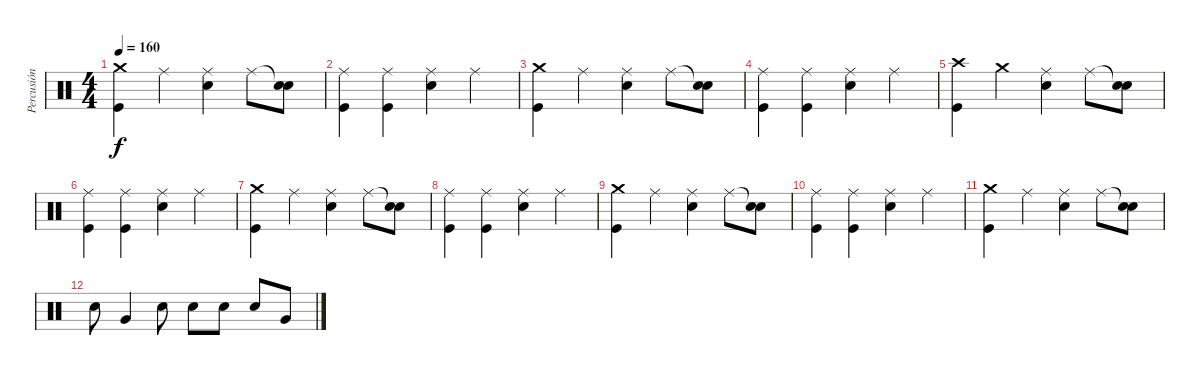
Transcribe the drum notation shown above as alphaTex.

\track ("Percusión" "Percusión") {instrument percussion}
\staff {score}
\articulation defaults
\ts (4 4)
\tempo 160
\clef neutral
\ks c
("Crash medium (hit)" "Kick (hit)").4{dy f} "Ride (middle)".4 ("Ride (middle)" "Snare (hit) 2").4 "Ride (middle)".8 ("Snare (hit)"{t} "Snare (hit) 2").8 |
("Ride (middle)" "Kick (hit)").4 ("Ride (middle)" "Kick (hit)").4 ("Ride (middle)" "Snare (hit) 2").4 "Ride (middle)".4 |
("Crash medium (hit)" "Kick (hit)").4 "Ride (middle)".4 ("Ride (middle)" "Snare (hit) 2").4 "Ride (middle)".8 ("Snare (hit)"{t} "Snare (hit) 2").8 |
("Ride (middle)" "Kick (hit)").4 ("Ride (middle)" "Kick (hit)").4 ("Ride (middle)" "Snare (hit) 2").4 "Ride (middle)".4 |
("Crash high (hit)" "Kick (hit)").4 "Crash medium (hit)".4 ("Ride (middle)" "Snare (hit) 2").4 "Ride (middle)".8 ("Snare (hit)"{t} "Snare (hit) 2").8 |
("Ride (middle)" "Kick (hit)").4 ("Ride (middle)" "Kick (hit)").4 ("Ride (middle)" "Snare (hit) 2").4 "Ride (middle)".4 |
("Crash medium (hit)" "Kick (hit)").4 "Ride (middle)".4 ("Ride (middle)" "Snare (hit) 2").4 "Ride (middle)".8 ("Snare (hit)"{t} "Snare (hit) 2").8 |
("Ride (middle)" "Kick (hit)").4 ("Ride (middle)" "Kick (hit)").4 ("Ride (middle)" "Snare (hit) 2").4 "Ride (middle)".4 |
("Crash medium (hit)" "Kick (hit)").4 "Ride (middle)".4 ("Ride (middle)" "Snare (hit) 2").4 "Ride (middle)".8 ("Snare (hit)"{t} "Snare (hit) 2").8 |
("Ride (middle)" "Kick (hit)").4 ("Ride (middle)" "Kick (hit)").4 ("Ride (middle)" "Snare (hit) 2").4 "Ride (middle)".4 |
("Crash medium (hit)" "Kick (hit)").4 "Ride (middle)".4 ("Ride (middle)" "Snare (hit) 2").4 "Ride (middle)".8 ("Snare (hit)"{t} "Snare (hit) 2").8 |
"Snare (hit) 2".8 "Very Low Tom (hit)".4 "Snare (hit) 2".8 "Snare (hit) 2".8 "Snare (hit) 2".8 "Snare (hit) 2".8 "Very Low Tom (hit)".8
